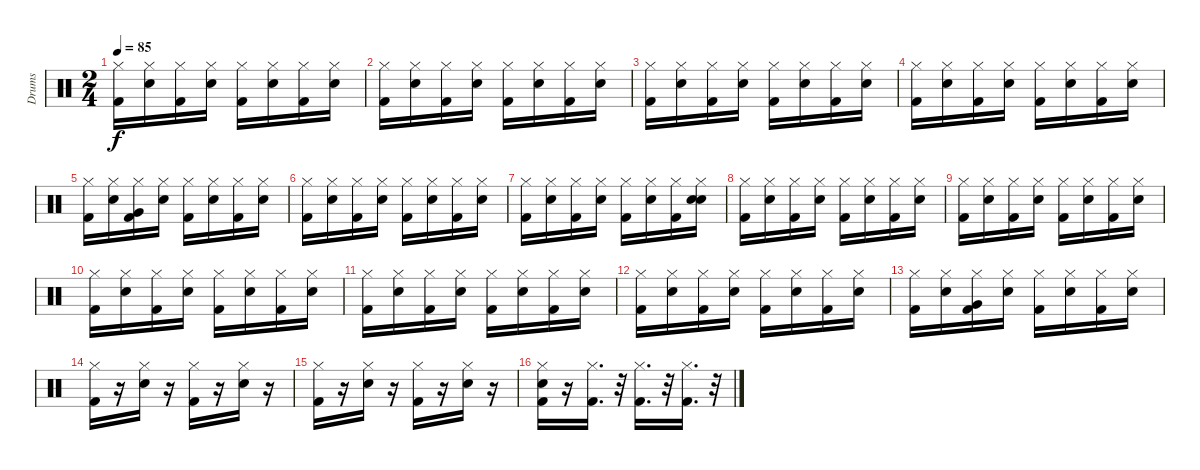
\track ("Drums" "Drums") {instrument percussion}
\staff {score}
\articulation defaults
\ts (2 4)
\tempo 85
\clef neutral
\ks c
("Hi-Hat (closed)" "Kick (hit) 2").16{dy f} ("Hi-Hat (closed)" "Snare (hit) 2").16 ("Kick (hit) 2" "Hi-Hat (closed)").16 ("Hi-Hat (closed)" "Snare (hit) 2").16 ("Kick (hit) 2" "Hi-Hat (closed)").16 ("Snare (hit) 2" "Hi-Hat (closed)").16 ("Hi-Hat (closed)" "Kick (hit) 2").16 ("Snare (hit) 2" "Hi-Hat (closed)").16 |
("Hi-Hat (closed)" "Kick (hit) 2").16 ("Hi-Hat (closed)" "Snare (hit) 2").16 ("Kick (hit) 2" "Hi-Hat (closed)").16 ("Hi-Hat (closed)" "Snare (hit) 2").16 ("Kick (hit) 2" "Hi-Hat (closed)").16 ("Hi-Hat (closed)" "Snare (hit) 2").16 ("Hi-Hat (closed)" "Kick (hit) 2").16 ("Hi-Hat (closed)" "Snare (hit) 2").16 |
("Hi-Hat (closed)" "Kick (hit) 2").16 ("Snare (hit) 2" "Hi-Hat (closed)").16 ("Kick (hit) 2" "Hi-Hat (closed)").16 ("Hi-Hat (closed)" "Snare (hit) 2").16 ("Kick (hit) 2" "Hi-Hat (closed)").16 ("Hi-Hat (closed)" "Snare (hit) 2").16 ("Hi-Hat (closed)" "Kick (hit) 2").16 ("Snare (hit) 2" "Hi-Hat (closed)").16 |
("Kick (hit) 2" "Hi-Hat (closed)").16 ("Snare (hit) 2" "Hi-Hat (closed)").16 ("Hi-Hat (closed)" "Kick (hit) 2").16 ("Hi-Hat (closed)" "Snare (hit) 2").16 ("Hi-Hat (closed)" "Kick (hit) 2").16 ("Hi-Hat (closed)" "Snare (hit) 2").16 ("Hi-Hat (closed)" "Kick (hit) 2").16 ("Hi-Hat (closed)" "Snare (hit) 2").16 |
("Kick (hit) 2" "Hi-Hat (closed)").16 ("Hi-Hat (closed)" "Snare (hit) 2").16 ("Very Low Tom (hit)" "Kick (hit) 2" "Hi-Hat (closed)").16 ("Hi-Hat (closed)" "Snare (hit) 2").16 ("Kick (hit) 2" "Hi-Hat (closed)").16 ("Snare (hit) 2" "Hi-Hat (closed)").16 ("Hi-Hat (closed)" "Kick (hit) 2").16 ("Snare (hit) 2" "Hi-Hat (closed)").16 |
("Hi-Hat (closed)" "Kick (hit) 2").16 ("Snare (hit) 2" "Hi-Hat (closed)").16 ("Hi-Hat (closed)" "Kick (hit) 2").16 ("Hi-Hat (closed)" "Snare (hit) 2").16 ("Kick (hit) 2" "Hi-Hat (closed)").16 ("Hi-Hat (closed)" "Snare (hit) 2").16 ("Kick (hit) 2" "Hi-Hat (closed)").16 ("Hi-Hat (closed)" "Snare (hit) 2").16 |
("Hi-Hat (closed)" "Kick (hit) 2").16 ("Snare (hit) 2" "Hi-Hat (closed)").16 ("Hi-Hat (closed)" "Kick (hit) 2").16 ("Hi-Hat (closed)" "Snare (hit) 2").16 ("Kick (hit) 2" "Hi-Hat (closed)").16 ("Hi-Hat (closed)" "Snare (hit) 2").16 ("Kick (hit) 2" "Hi-Hat (closed)").16 ("Hi-Hat (closed)" "Snare (hit) 2" "Snare (hit) 2").16 |
("Kick (hit) 2" "Hi-Hat (closed)").16 ("Hi-Hat (closed)" "Snare (hit) 2").16 ("Hi-Hat (closed)" "Kick (hit) 2").16 ("Hi-Hat (closed)" "Snare (hit) 2").16 ("Kick (hit) 2" "Hi-Hat (closed)").16 ("Snare (hit) 2" "Hi-Hat (closed)").16 ("Hi-Hat (closed)" "Kick (hit) 2").16 ("Hi-Hat (closed)" "Snare (hit) 2").16 |
("Kick (hit) 2" "Hi-Hat (closed)").16 ("Snare (hit) 2" "Hi-Hat (closed)").16 ("Hi-Hat (closed)" "Kick (hit) 2").16 ("Hi-Hat (closed)" "Snare (hit) 2").16 ("Kick (hit) 2" "Hi-Hat (closed)").16 ("Hi-Hat (closed)" "Snare (hit) 2").16 ("Hi-Hat (closed)" "Kick (hit) 2").16 ("Hi-Hat (closed)" "Snare (hit) 2").16 |
("Hi-Hat (closed)" "Kick (hit) 2").16 ("Snare (hit) 2" "Hi-Hat (closed)").16 ("Hi-Hat (closed)" "Kick (hit) 2").16 ("Hi-Hat (closed)" "Snare (hit) 2").16 ("Hi-Hat (closed)" "Kick (hit) 2").16 ("Hi-Hat (closed)" "Snare (hit) 2").16 ("Kick (hit) 2" "Hi-Hat (closed)").16 ("Hi-Hat (closed)" "Snare (hit) 2").16 |
("Hi-Hat (closed)" "Kick (hit) 2").16 ("Snare (hit) 2" "Hi-Hat (closed)").16 ("Kick (hit) 2" "Hi-Hat (closed)").16 ("Hi-Hat (closed)" "Snare (hit) 2").16 ("Kick (hit) 2" "Hi-Hat (closed)").16 ("Snare (hit) 2" "Hi-Hat (closed)").16 ("Hi-Hat (closed)" "Kick (hit) 2").16 ("Snare (hit) 2" "Hi-Hat (closed)").16 |
("Hi-Hat (closed)" "Kick (hit) 2").16 ("Hi-Hat (closed)" "Snare (hit) 2").16 ("Kick (hit) 2" "Hi-Hat (closed)").16 ("Snare (hit) 2" "Hi-Hat (closed)").16 ("Kick (hit) 2" "Hi-Hat (closed)").16 ("Snare (hit) 2" "Hi-Hat (closed)").16 ("Kick (hit) 2" "Hi-Hat (closed)").16 ("Hi-Hat (closed)" "Snare (hit) 2").16 |
("Hi-Hat (closed)" "Kick (hit) 2").16 ("Snare (hit) 2" "Hi-Hat (closed)").16 ("Very Low Tom (hit)" "Kick (hit) 2" "Hi-Hat (closed)").16 ("Hi-Hat (closed)" "Snare (hit) 2").16 ("Kick (hit) 2" "Hi-Hat (closed)").16 ("Hi-Hat (closed)" "Snare (hit) 2").16 ("Hi-Hat (closed)" "Kick (hit) 2").16 ("Snare (hit) 2" "Hi-Hat (closed)").16 |
("Hi-Hat (closed)" "Kick (hit) 2").16 r.16 ("Snare (hit) 2" "Hi-Hat (closed)").16 r.16 ("Hi-Hat (closed)" "Kick (hit) 2").16 r.16 ("Hi-Hat (closed)" "Snare (hit) 2").16 r.16 |
("Hi-Hat (closed)" "Kick (hit) 2").16 r.16 ("Snare (hit) 2" "Hi-Hat (closed)").16 r.16 ("Kick (hit) 2" "Hi-Hat (closed)").16 r.16 ("Hi-Hat (closed)" "Snare (hit) 2").16 r.16 |
("Kick (hit) 2" "Snare (hit) 2" "Hi-Hat (closed)").16 r.16 ("Hi-Hat (closed)" "Kick (hit) 2").16{d} r.32 ("Hi-Hat (closed)" "Kick (hit) 2").16{d} r.32 ("Kick (hit) 2" "Hi-Hat (closed)").16{d} r.32
